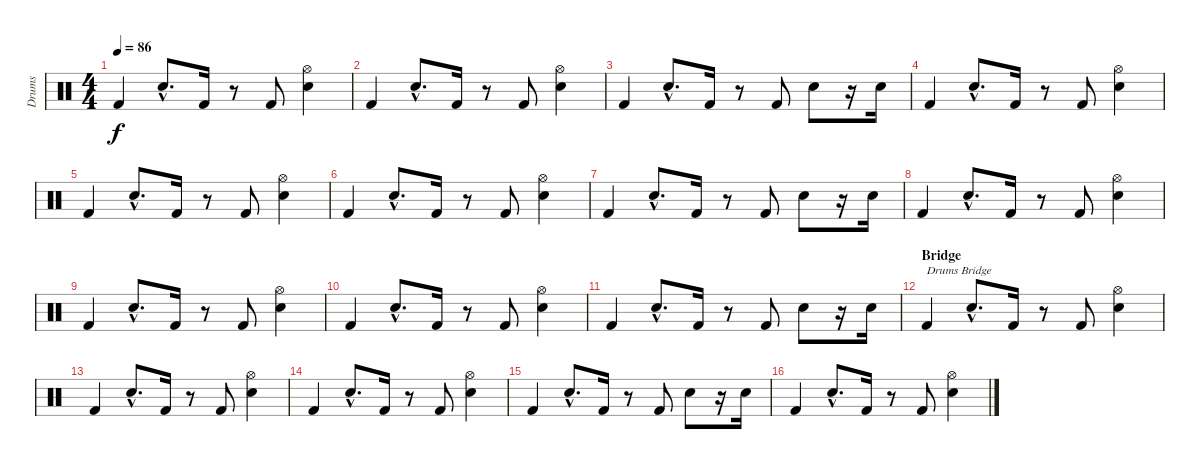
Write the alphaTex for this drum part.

\track ("Drums" "Drums") {instrument percussion}
\staff {score}
\articulation defaults
\ts (4 4)
\tempo 86
\clef neutral
\ks c "Kick (hit) 2".4{dy f} "Snare (hit) 2"{hac}.8{d} "Kick (hit) 2".16
r.8 "Kick (hit) 2".8 ("Hi-Hat (open)" "Snare (hit) 2").4 |
"Kick (hit) 2".4 "Snare (hit) 2"{hac}.8{d} "Kick (hit) 2".16 r.8 "Kick (hit) 2".8 ("Hi-Hat (open)" "Snare (hit) 2").4 |
"Kick (hit) 2".4 "Snare (hit) 2"{hac}.8{d} "Kick (hit) 2".16 r.8 "Kick (hit) 2".8 "Snare (hit) 2".8 r.16 "Snare (hit) 2".16 |
"Kick (hit) 2".4 "Snare (hit) 2"{hac}.8{d} "Kick (hit) 2".16 r.8 "Kick (hit) 2".8 ("Hi-Hat (open)" "Snare (hit) 2").4 |
"Kick (hit) 2".4 "Snare (hit) 2"{hac}.8{d} "Kick (hit) 2".16 r.8 "Kick (hit) 2".8 ("Hi-Hat (open)" "Snare (hit) 2").4 |
"Kick (hit) 2".4 "Snare (hit) 2"{hac}.8{d} "Kick (hit) 2".16 r.8 "Kick (hit) 2".8 ("Hi-Hat (open)" "Snare (hit) 2").4 |
"Kick (hit) 2".4 "Snare (hit) 2"{hac}.8{d} "Kick (hit) 2".16 r.8 "Kick (hit) 2".8 "Snare (hit) 2".8 r.16 "Snare (hit) 2".16 |
"Kick (hit) 2".4 "Snare (hit) 2"{hac}.8{d} "Kick (hit) 2".16 r.8 "Kick (hit) 2".8 ("Hi-Hat (open)" "Snare (hit) 2").4 |
"Kick (hit) 2".4 "Snare (hit) 2"{hac}.8{d} "Kick (hit) 2".16 r.8 "Kick (hit) 2".8 ("Hi-Hat (open)" "Snare (hit) 2").4 |
"Kick (hit) 2".4 "Snare (hit) 2"{hac}.8{d} "Kick (hit) 2".16 r.8 "Kick (hit) 2".8 ("Hi-Hat (open)" "Snare (hit) 2").4 |
"Kick (hit) 2".4 "Snare (hit) 2"{hac}.8{d} "Kick (hit) 2".16 r.8 "Kick (hit) 2".8 "Snare (hit) 2".8 r.16 "Snare (hit) 2".16 |
\section ("" "Bridge")
"Kick (hit) 2".4{txt "Drums Bridge"} "Snare (hit) 2"{hac}.8{d} "Kick (hit) 2".16 r.8 "Kick (hit) 2".8 ("Hi-Hat (open)" "Snare (hit) 2").4 |
"Kick (hit) 2".4 "Snare (hit) 2"{hac}.8{d} "Kick (hit) 2".16 r.8 "Kick (hit) 2".8 ("Hi-Hat (open)" "Snare (hit) 2").4 |
"Kick (hit) 2".4 "Snare (hit) 2"{hac}.8{d} "Kick (hit) 2".16 r.8 "Kick (hit) 2".8 ("Hi-Hat (open)" "Snare (hit) 2").4 |
"Kick (hit) 2".4 "Snare (hit) 2"{hac}.8{d} "Kick (hit) 2".16 r.8 "Kick (hit) 2".8 "Snare (hit) 2".8 r.16 "Snare (hit) 2".16 |
"Kick (hit) 2".4 "Snare (hit) 2"{hac}.8{d} "Kick (hit) 2".16 r.8 "Kick (hit) 2".8 ("Hi-Hat (open)" "Snare (hit) 2").4
